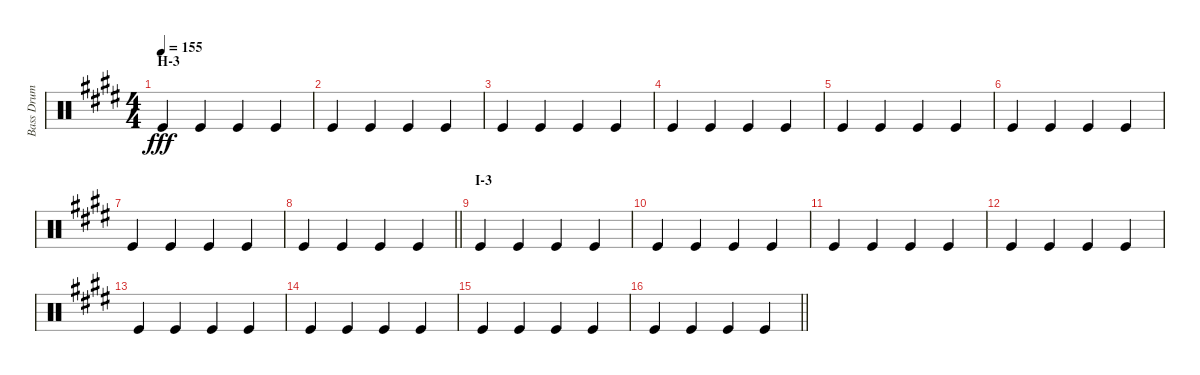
\track ("Bass Drum" "Bass Drum") {instrument percussion}
\staff {score}
\articulation defaults
\ts (4 4)
\section ("" "H-3")
\tempo 155
\clef neutral
\ks e "Kick (hit)".4{dy fff} "Kick (hit)".4 "Kick (hit)".4 "Kick (hit)".4
|
"Kick (hit)".4 "Kick (hit)".4 "Kick (hit)".4 "Kick (hit)".4 |
"Kick (hit)".4 "Kick (hit)".4 "Kick (hit)".4 "Kick (hit)".4 |
"Kick (hit)".4 "Kick (hit)".4 "Kick (hit)".4 "Kick (hit)".4 |
"Kick (hit)".4 "Kick (hit)".4 "Kick (hit)".4 "Kick (hit)".4 |
"Kick (hit)".4 "Kick (hit)".4 "Kick (hit)".4 "Kick (hit)".4 |
"Kick (hit)".4 "Kick (hit)".4 "Kick (hit)".4 "Kick (hit)".4 |
\barLineRight lightlight "Kick (hit)".4 "Kick (hit)".4 "Kick (hit)".4 "Kick (hit)".4
|
\section ("" "I-3")
"Kick (hit)".4 "Kick (hit)".4 "Kick (hit)".4 "Kick (hit)".4 |
"Kick (hit)".4 "Kick (hit)".4 "Kick (hit)".4 "Kick (hit)".4 |
"Kick (hit)".4 "Kick (hit)".4 "Kick (hit)".4 "Kick (hit)".4 |
"Kick (hit)".4 "Kick (hit)".4 "Kick (hit)".4 "Kick (hit)".4 |
"Kick (hit)".4 "Kick (hit)".4 "Kick (hit)".4 "Kick (hit)".4 |
"Kick (hit)".4 "Kick (hit)".4 "Kick (hit)".4 "Kick (hit)".4 |
"Kick (hit)".4 "Kick (hit)".4 "Kick (hit)".4 "Kick (hit)".4 |
\barLineRight lightlight "Kick (hit)".4 "Kick (hit)".4 "Kick (hit)".4 "Kick (hit)".4
